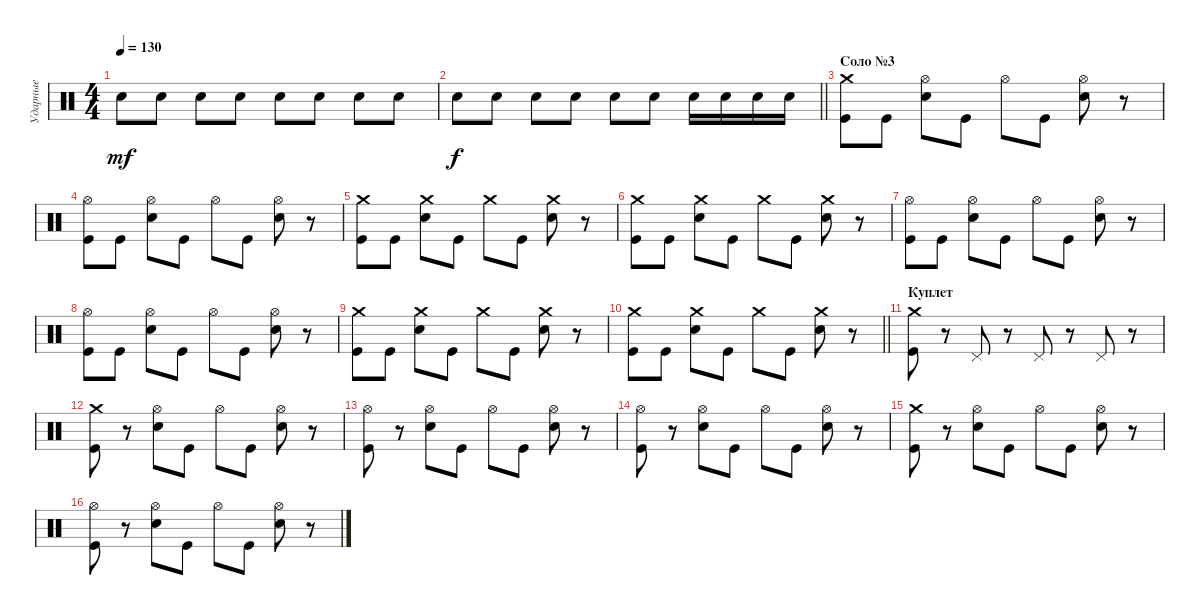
\track ("Ударные" "Ударные") {instrument percussion}
\staff {score}
\articulation defaults
\ts (4 4)
\tempo 130
\clef neutral
\ks c "Electric Snare (hit)".8{dy mf} "Electric Snare (hit)".8 "Electric Snare (hit)".8 "Electric Snare (hit)".8 "Electric Snare (hit)".8 "Electric Snare (hit)".8 "Electric Snare (hit)".8 "Electric Snare (hit)".8
|
\barLineRight lightlight "Electric Snare (hit)".8{dy f} "Electric Snare (hit)".8 "Electric Snare (hit)".8 "Electric Snare (hit)".8 "Electric Snare (hit)".8 "Electric Snare (hit)".8 "Electric Snare (hit)".16 "Electric Snare (hit)".16 "Electric Snare (hit)".16 "Electric Snare (hit)".16
|
\section ("" "Соло №3")
("Crash medium (hit)" "Kick (hit)").8 "Kick (hit)".8 ("Hi-Hat (open)" "Electric Snare (hit)").8 "Kick (hit)".8 "Hi-Hat (open)".8 "Kick (hit)".8 ("Hi-Hat (open)" "Electric Snare (hit)").8 r.8 |
("Hi-Hat (open)" "Kick (hit)").8 "Kick (hit)".8 ("Hi-Hat (open)" "Electric Snare (hit)").8 "Kick (hit)".8 "Hi-Hat (open)".8 "Kick (hit)".8 ("Hi-Hat (open)" "Electric Snare (hit)").8 r.8 |
("Crash medium (hit)" "Kick (hit)").8 "Kick (hit)".8 ("Crash medium (hit)" "Electric Snare (hit)").8 "Kick (hit)".8 "Crash medium (hit)".8 "Kick (hit)".8 ("Crash medium (hit)" "Electric Snare (hit)").8 r.8 |
("Crash medium (hit)" "Kick (hit)").8 "Kick (hit)".8 ("Crash medium (hit)" "Electric Snare (hit)").8 "Kick (hit)".8 "Crash medium (hit)".8 "Kick (hit)".8 ("Crash medium (hit)" "Electric Snare (hit)").8 r.8 |
("Hi-Hat (open)" "Kick (hit)").8 "Kick (hit)".8 ("Hi-Hat (open)" "Electric Snare (hit)").8 "Kick (hit)".8 "Hi-Hat (open)".8 "Kick (hit)".8 ("Hi-Hat (open)" "Electric Snare (hit)").8 r.8 |
("Hi-Hat (open)" "Kick (hit)").8 "Kick (hit)".8 ("Hi-Hat (open)" "Electric Snare (hit)").8 "Kick (hit)".8 "Hi-Hat (open)".8 "Kick (hit)".8 ("Hi-Hat (open)" "Electric Snare (hit)").8 r.8 |
("Crash medium (hit)" "Kick (hit)").8 "Kick (hit)".8 ("Crash medium (hit)" "Electric Snare (hit)").8 "Kick (hit)".8 "Crash medium (hit)".8 "Kick (hit)".8 ("Crash medium (hit)" "Electric Snare (hit)").8 r.8 |
\barLineRight lightlight
("Crash medium (hit)" "Kick (hit)").8 "Kick (hit)".8 ("Crash medium (hit)" "Electric Snare (hit)").8 "Kick (hit)".8 "Crash medium (hit)".8 "Kick (hit)".8 ("Crash medium (hit)" "Electric Snare (hit)").8 r.8 |
\section ("" "Куплет")
("Crash medium (hit)" "Kick (hit)").8 r.8 "Pedal Hi-Hat (hit)".8 r.8 "Pedal Hi-Hat (hit)".8 r.8 "Pedal Hi-Hat (hit)".8 r.8 |
("Crash medium (hit)" "Kick (hit)").8 r.8 ("Hi-Hat (open)" "Electric Snare (hit)").8 "Kick (hit)".8 "Hi-Hat (open)".8 "Kick (hit)".8 ("Hi-Hat (open)" "Electric Snare (hit)").8 r.8 |
("Hi-Hat (open)" "Kick (hit)").8 r.8 ("Hi-Hat (open)" "Electric Snare (hit)").8 "Kick (hit)".8 "Hi-Hat (open)".8 "Kick (hit)".8 ("Hi-Hat (open)" "Electric Snare (hit)").8 r.8 |
("Hi-Hat (open)" "Kick (hit)").8 r.8 ("Hi-Hat (open)" "Electric Snare (hit)").8 "Kick (hit)".8 "Hi-Hat (open)".8 "Kick (hit)".8 ("Hi-Hat (open)" "Electric Snare (hit)").8 r.8 |
("Crash medium (hit)" "Kick (hit)").8 r.8 ("Hi-Hat (open)" "Electric Snare (hit)").8 "Kick (hit)".8 "Hi-Hat (open)".8 "Kick (hit)".8 ("Hi-Hat (open)" "Electric Snare (hit)").8 r.8 |
("Hi-Hat (open)" "Kick (hit)").8 r.8 ("Hi-Hat (open)" "Electric Snare (hit)").8 "Kick (hit)".8 "Hi-Hat (open)".8 "Kick (hit)".8 ("Hi-Hat (open)" "Electric Snare (hit)").8 r.8
